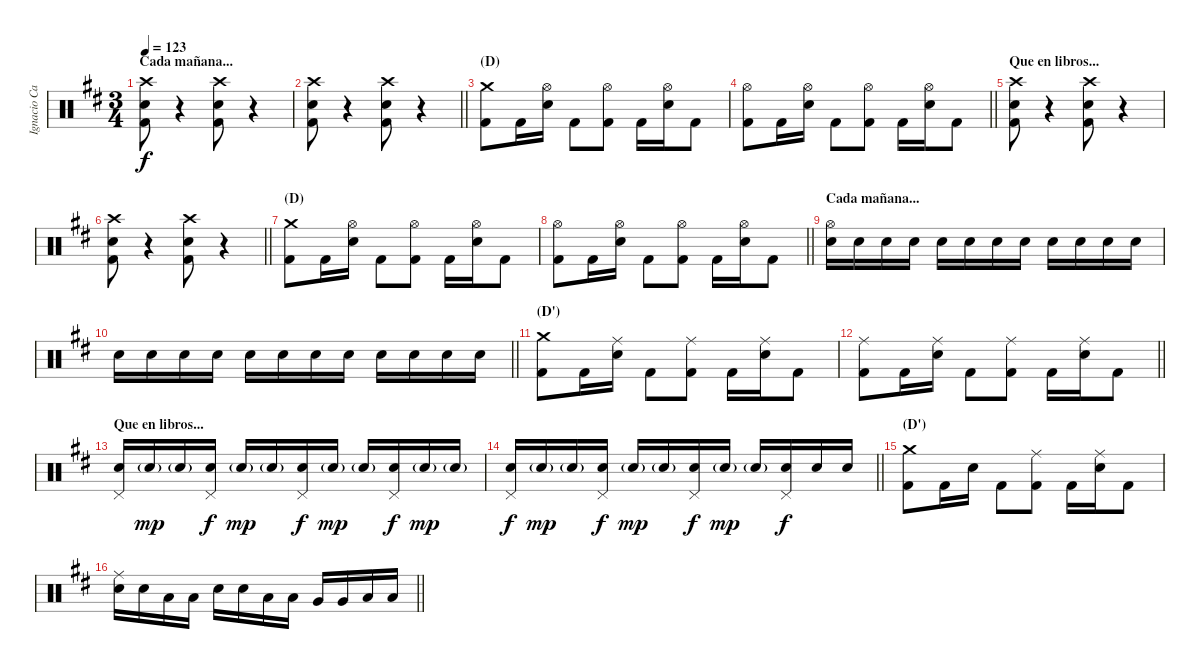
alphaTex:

\track ("Ignacio Cantera - Batería" "Ignacio Ca") {instrument percussion}
\staff {score}
\articulation defaults
\ts (3 4)
\section ("" "Cada mañana...")
\tempo 123
\clef neutral
\ks bminor
("Crash high (hit)" "Snare (hit) 2" "Kick (hit) 2").8{dy f volume 14} r.4{volume 0} ("Crash high (hit)" "Snare (hit) 2" "Kick (hit) 2").8{volume 14} r.4{volume 0} |
\barLineRight lightlight
("Crash high (hit)" "Snare (hit) 2" "Kick (hit) 2").8{volume 14} r.4{volume 0} ("Crash high (hit)" "Snare (hit) 2" "Kick (hit) 2").8{volume 14} r.4{volume 0} |
\section ("" "(D)")
("Crash medium (hit)" "Kick (hit) 2").8{volume 14} "Kick (hit) 2".16 ("Hi-Hat (open)" "Snare (hit) 2").16 "Kick (hit) 2".8 ("Hi-Hat (open)" "Kick (hit) 2").8 "Kick (hit) 2".16 ("Hi-Hat (open)" "Snare (hit) 2").16 "Kick (hit) 2".8 |
\barLineRight lightlight
("Hi-Hat (open)" "Kick (hit) 2").8 "Kick (hit) 2".16 ("Hi-Hat (open)" "Snare (hit) 2").16 "Kick (hit) 2".8 ("Hi-Hat (open)" "Kick (hit) 2").8 "Kick (hit) 2".16 ("Hi-Hat (open)" "Snare (hit) 2").16 "Kick (hit) 2".8 |
\section ("" "Que en libros...")
("Crash high (hit)" "Snare (hit) 2" "Kick (hit) 2").8{volume 14} r.4{volume 0} ("Crash high (hit)" "Snare (hit) 2" "Kick (hit) 2").8{volume 14} r.4{volume 0} |
\barLineRight lightlight
("Crash high (hit)" "Snare (hit) 2" "Kick (hit) 2").8{volume 14} r.4{volume 0} ("Crash high (hit)" "Snare (hit) 2" "Kick (hit) 2").8{volume 14} r.4{volume 0} |
\section ("" "(D)")
("Crash medium (hit)" "Kick (hit) 2").8{volume 14} "Kick (hit) 2".16 ("Hi-Hat (open)" "Snare (hit) 2").16 "Kick (hit) 2".8 ("Hi-Hat (open)" "Kick (hit) 2").8 "Kick (hit) 2".16 ("Hi-Hat (open)" "Snare (hit) 2").16 "Kick (hit) 2".8 |
\barLineRight lightlight
("Hi-Hat (open)" "Kick (hit) 2").8 "Kick (hit) 2".16 ("Hi-Hat (open)" "Snare (hit) 2").16 "Kick (hit) 2".8 ("Hi-Hat (open)" "Kick (hit) 2").8 "Kick (hit) 2".16 ("Hi-Hat (open)" "Snare (hit) 2").16 "Kick (hit) 2".8 |
\section ("" "Cada mañana...")
("Hi-Hat (open)" "Electric Snare (hit)").16 "Electric Snare (hit)".16 "Electric Snare (hit)".16 "Electric Snare (hit)".16 "Electric Snare (hit)".16 "Electric Snare (hit)".16 "Electric Snare (hit)".16 "Electric Snare (hit)".16 "Electric Snare (hit)".16 "Electric Snare (hit)".16 "Electric Snare (hit)".16 "Electric Snare (hit)".16 |
\barLineRight lightlight "Electric Snare (hit)".16 "Electric Snare (hit)".16 "Electric Snare (hit)".16 "Electric Snare (hit)".16 "Electric Snare (hit)".16 "Electric Snare (hit)".16 "Electric Snare (hit)".16 "Electric Snare (hit)".16 "Electric Snare (hit)".16 "Electric Snare (hit)".16 "Electric Snare (hit)".16 "Electric Snare (hit)".16
|
\section ("" "(D')")
("Crash medium (hit)" "Kick (hit) 2").8 "Kick (hit) 2".16 ("Ride (middle)" "Snare (hit) 2").16 "Kick (hit) 2".8 ("Ride (middle)" "Kick (hit) 2").8 "Kick (hit) 2".16 ("Ride (middle)" "Snare (hit) 2").16 "Kick (hit) 2".8 |
\barLineRight lightlight
("Ride (middle)" "Kick (hit) 2").8 "Kick (hit) 2".16 ("Ride (middle)" "Snare (hit) 2").16 "Kick (hit) 2".8 ("Ride (middle)" "Kick (hit) 2").8 "Kick (hit) 2".16 ("Ride (middle)" "Snare (hit) 2").16 "Kick (hit) 2".8 |
\section ("" "Que en libros...")
("Pedal Hi-Hat (hit)" "Snare (hit) 2").16 "Snare (hit) 2"{g}.16{dy mp} "Snare (hit) 2"{g}.16 ("Pedal Hi-Hat (hit)" "Snare (hit) 2").16{dy f} "Snare (hit) 2"{g}.16{dy mp} "Snare (hit) 2"{g}.16 ("Pedal Hi-Hat (hit)" "Snare (hit) 2").16{dy f} "Snare (hit) 2"{g}.16{dy mp} "Snare (hit) 2"{g}.16 ("Pedal Hi-Hat (hit)" "Snare (hit) 2").16{dy f} "Snare (hit) 2"{g}.16{dy mp} "Snare (hit) 2"{g}.16 |
\barLineRight lightlight
("Pedal Hi-Hat (hit)" "Snare (hit) 2").16{dy f} "Snare (hit) 2"{g}.16{dy mp} "Snare (hit) 2"{g}.16 ("Pedal Hi-Hat (hit)" "Snare (hit) 2").16{dy f} "Snare (hit) 2"{g}.16{dy mp} "Snare (hit) 2"{g}.16 ("Pedal Hi-Hat (hit)" "Snare (hit) 2").16{dy f} "Snare (hit) 2"{g}.16{dy mp} "Snare (hit) 2"{g}.16 ("Pedal Hi-Hat (hit)" "Snare (hit) 2").16{dy f} "Snare (hit) 2".16 "Snare (hit) 2".16 |
\section ("" "(D')")
("Crash medium (hit)" "Kick (hit) 2").8 "Kick (hit) 2".16 "Snare (hit) 2".16 "Kick (hit) 2".8 ("Ride (middle)" "Kick (hit) 2").8 "Kick (hit) 2".16 ("Ride (middle)" "Snare (hit) 2").16 "Kick (hit) 2".8 |
\barLineRight lightlight
("Ride (middle)" "Snare (hit) 2").16 "Snare (hit) 2".16 "Low Tom (hit)".16 "Low Tom (hit)".16 "Snare (hit) 2".16 "Snare (hit) 2".16 "Low Tom (hit)".16 "Low Tom (hit)".16 "Very Low Tom (hit)".16 "Very Low Tom (hit)".16 "Low Floor Tom (hit)".16 "Low Floor Tom (hit)".16
